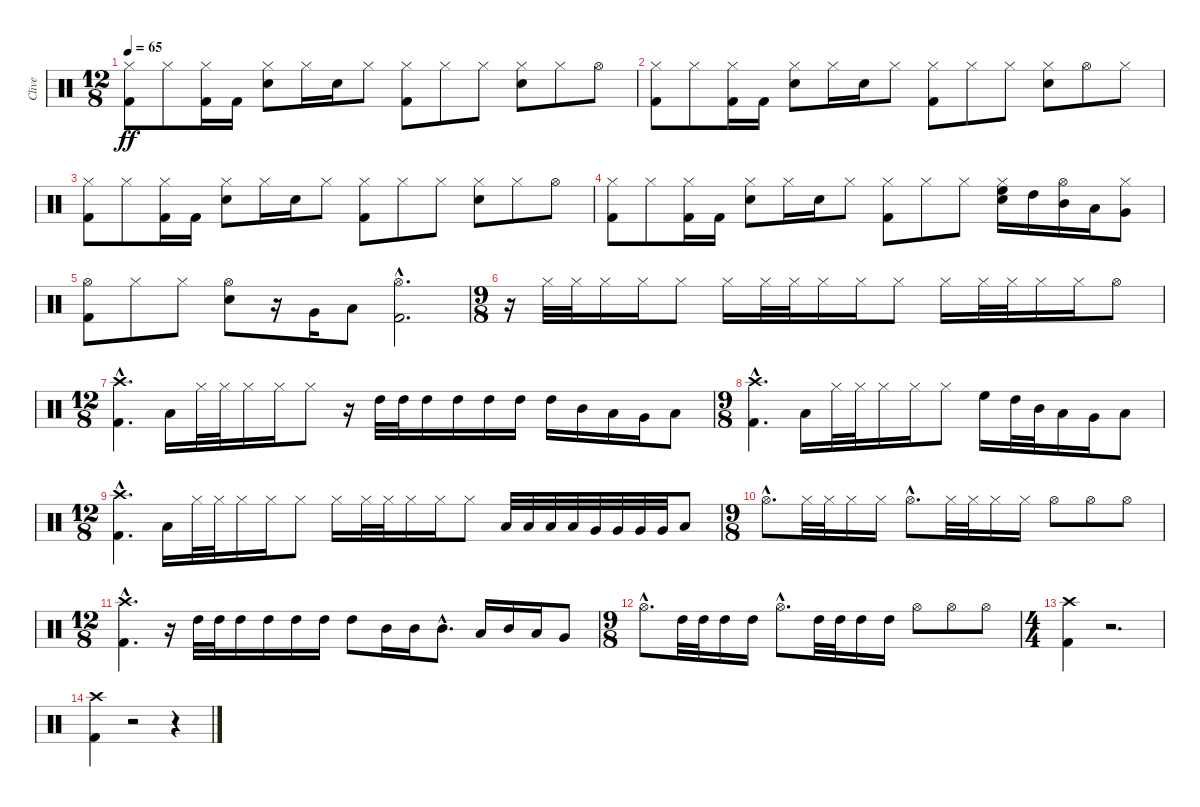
\track ("Clive" "Clive") {instrument percussion}
\staff {score}
\articulation defaults
\ts (12 8)
\tempo 65
\clef neutral
\ks c
("Kick (hit) 2" "Hi-Hat (closed)").8{dy ff} "Hi-Hat (closed)".8 ("Kick (hit) 2" "Hi-Hat (closed)").16 "Kick (hit) 2".16 ("Snare (hit) 2" "Hi-Hat (closed)").8 "Hi-Hat (closed)".16 "Snare (hit) 2".16 "Hi-Hat (closed)".8 ("Kick (hit) 2" "Hi-Hat (closed)").8 "Hi-Hat (closed)".8 "Hi-Hat (closed)".8 ("Snare (hit) 2" "Hi-Hat (closed)").8 "Hi-Hat (closed)".8 "Hi-Hat (open)".8 |
("Kick (hit) 2" "Hi-Hat (closed)").8 "Hi-Hat (closed)".8 ("Kick (hit) 2" "Hi-Hat (closed)").16 "Kick (hit) 2".16 ("Snare (hit) 2" "Hi-Hat (closed)").8 "Hi-Hat (closed)".16 "Snare (hit) 2".16 "Hi-Hat (closed)".8 ("Kick (hit) 2" "Hi-Hat (closed)").8 "Hi-Hat (closed)".8 "Hi-Hat (closed)".8 ("Snare (hit) 2" "Hi-Hat (closed)").8 "Hi-Hat (open)".8 "Hi-Hat (closed)".8 |
("Kick (hit) 2" "Hi-Hat (closed)").8 "Hi-Hat (closed)".8 ("Kick (hit) 2" "Hi-Hat (closed)").16 "Kick (hit) 2".16 ("Snare (hit) 2" "Hi-Hat (closed)").8 "Hi-Hat (closed)".16 "Snare (hit) 2".16 "Hi-Hat (closed)".8 ("Kick (hit) 2" "Hi-Hat (closed)").8 "Hi-Hat (closed)".8 "Hi-Hat (closed)".8 ("Snare (hit) 2" "Hi-Hat (closed)").8 "Hi-Hat (closed)".8 "Hi-Hat (open)".8 |
("Kick (hit) 2" "Hi-Hat (closed)").8 "Hi-Hat (closed)".8 ("Kick (hit) 2" "Hi-Hat (closed)").16 "Kick (hit) 2".16 ("Snare (hit) 2" "Hi-Hat (closed)").8 "Hi-Hat (closed)".16 "Snare (hit) 2".16 "Hi-Hat (closed)".8 ("Kick (hit) 2" "Hi-Hat (closed)").8 "Hi-Hat (closed)".8 "Hi-Hat (closed)".8 ("Snare (hit) 2" "Hi-Hat (closed)" "High Floor Tom (hit)").16 "High Tom (hit)".16 ("Hi-Hat (open)" "Mid Tom (hit)").16 "Low Tom (hit)".16 ("Hi-Hat (closed)" "Very Low Tom (hit)").8 |
("Kick (hit) 2" "Hi-Hat (open)").8 "Hi-Hat (closed)".8 "Hi-Hat (closed)".8 ("Snare (hit) 2" "Hi-Hat (open)").8 r.16 "Very Low Tom (hit)".16 "Low Floor Tom (hit)".8 ("Kick (hit) 2"{hac} "Hi-Hat (open)"{hac}).2{d} |
\ts (9 8)
r.16 "Hi-Hat (closed)".32{volume 4} "Hi-Hat (closed)".32{volume 6} "Hi-Hat (closed)".16{volume 8} "Hi-Hat (closed)".16{volume 12} "Hi-Hat (closed)".8{volume 16} "Hi-Hat (closed)".16{volume 0} "Hi-Hat (closed)".32{volume 4} "Hi-Hat (closed)".32{volume 6} "Hi-Hat (closed)".16{volume 8} "Hi-Hat (closed)".16{volume 12} "Hi-Hat (closed)".8{volume 16} "Hi-Hat (closed)".16{volume 0} "Hi-Hat (closed)".32{volume 4} "Hi-Hat (closed)".32{volume 6} "Hi-Hat (closed)".16{volume 8} "Hi-Hat (closed)".16{volume 12} "Hi-Hat (open)".8{volume 16} |
\ts (12 8)
("Kick (hit) 2"{hac} "Crash high (hit)"{hac}).4{d} "Low Floor Tom (hit)".16{volume 0} "Hi-Hat (closed)".32{volume 4} "Hi-Hat (closed)".32{volume 6} "Hi-Hat (closed)".16{volume 8} "Hi-Hat (closed)".16{volume 12} "Hi-Hat (closed)".8{volume 16} r.16 "High Tom (hit)".32{volume 4} "High Tom (hit)".32{volume 6} "High Tom (hit)".16{volume 8} "High Tom (hit)".16{volume 12} "High Tom (hit)".16{volume 16} "High Tom (hit)".16 "High Tom (hit)".16 "Mid Tom (hit)".16 "Low Tom (hit)".16 "Very Low Tom (hit)".16 "Low Floor Tom (hit)".8 |
\ts (9 8)
("Kick (hit) 2"{hac} "Crash high (hit)"{hac}).4{d} "Low Floor Tom (hit)".16{volume 0} "Hi-Hat (closed)".32{volume 4} "Hi-Hat (closed)".32{volume 6} "Hi-Hat (closed)".16{volume 8} "Hi-Hat (closed)".16{volume 12} "Hi-Hat (closed)".8{volume 16} "High Floor Tom (hit)".16 "High Tom (hit)".32 "Mid Tom (hit)".32 "Low Tom (hit)".16 "Very Low Tom (hit)".16 "Low Floor Tom (hit)".8 |
\ts (12 8)
("Kick (hit) 2"{hac} "Crash high (hit)"{hac}).4{d} "Low Floor Tom (hit)".16{volume 0} "Hi-Hat (closed)".32{volume 4} "Hi-Hat (closed)".32{volume 6} "Hi-Hat (closed)".16{volume 8} "Hi-Hat (closed)".16{volume 12} "Hi-Hat (closed)".8{volume 16} "Hi-Hat (closed)".16{volume 0} "Hi-Hat (closed)".32{volume 4} "Hi-Hat (closed)".32{volume 6} "Hi-Hat (closed)".16{volume 8} "Hi-Hat (closed)".16{volume 12} "Hi-Hat (closed)".8{volume 16} "Low Tom (hit)".32 "Low Tom (hit)".32 "Low Tom (hit)".32 "Low Tom (hit)".32 "Very Low Tom (hit)".32 "Very Low Tom (hit)".32 "Very Low Tom (hit)".32 "Very Low Tom (hit)".32 "Low Floor Tom (hit)".8 |
\ts (9 8)
"Hi-Hat (open)"{hac}.8{d} "Hi-Hat (closed)".32 "Hi-Hat (closed)".32 "Hi-Hat (closed)".16 "Hi-Hat (closed)".16 "Hi-Hat (open)"{hac}.8{d} "Hi-Hat (closed)".32 "Hi-Hat (closed)".32 "Hi-Hat (closed)".16 "Hi-Hat (closed)".16 "Hi-Hat (open)".8 "Hi-Hat (open)".8 "Hi-Hat (open)".8 |
\ts (12 8)
("Kick (hit) 2"{hac} "Crash high (hit)"{hac}).4{d} r.16 "High Tom (hit)".32{volume 4} "High Tom (hit)".32{volume 6} "High Tom (hit)".16{volume 8} "High Tom (hit)".16{volume 12} "High Tom (hit)".16{volume 16} "High Tom (hit)".16 "High Tom (hit)".8 "Mid Tom (hit)".16 "Mid Tom (hit)".16 "Mid Tom (hit)"{hac}.8{d} "Low Tom (hit)".16 "Mid Tom (hit)".16 "Low Tom (hit)".16 "Very Low Tom (hit)".8 |
\ts (9 8)
"Hi-Hat (open)"{hac}.8{d} "High Tom (hit)".32 "High Tom (hit)".32 "High Tom (hit)".16 "High Tom (hit)".16 "Hi-Hat (open)"{hac}.8{d} "High Tom (hit)".32 "High Tom (hit)".32 "High Tom (hit)".16 "High Tom (hit)".16 "Hi-Hat (open)".8 "Hi-Hat (open)".8 "Hi-Hat (open)".8 |
\ts (4 4)
("Kick (hit) 2" "Crash high (hit)").4 r.2{d} |
("Kick (hit) 2" "Crash high (hit)").4 r.2 r.4
